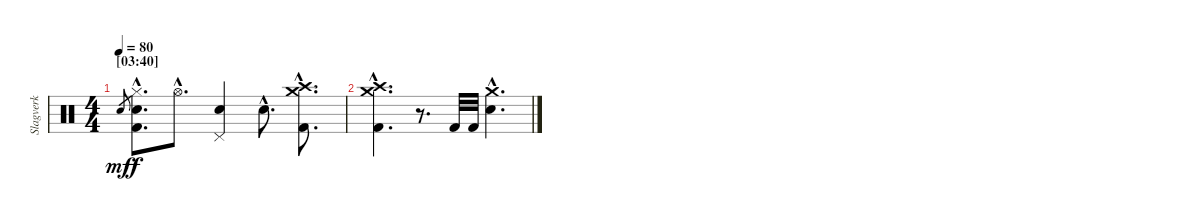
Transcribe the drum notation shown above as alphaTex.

\track ("Slagverk" "Slagverk") {instrument percussion}
\staff {score}
\articulation defaults
\ts (4 4)
\section ("" "[03:40]")
\tempo 80
\clef neutral
\ks c "Electric Snare (hit)".8{gr dy mf}
("Hi-Hat (closed)"{hac} "Electric Snare (hit)"{hac} "Kick (hit) 2"{hac}).8{d dy f} "Hi-Hat (open)"{hac}.8{d} ("Pedal Hi-Hat (hit)" "Electric Snare (hit)").4 "Electric Snare (hit)"{hac}.8{d} ("Crash high (hit)"{hac} "Crash medium (hit)"{hac} "Kick (hit) 2"{hac}).8{d} |
("Crash high (hit)"{hac} "Crash medium (hit)"{hac} "Kick (hit) 2"{hac}).4{d} r.8{d} "Kick (hit) 2".32 "Kick (hit) 2".32 ("Crash medium (hit)"{hac} "Electric Snare (hit)"{hac}).4{d}
